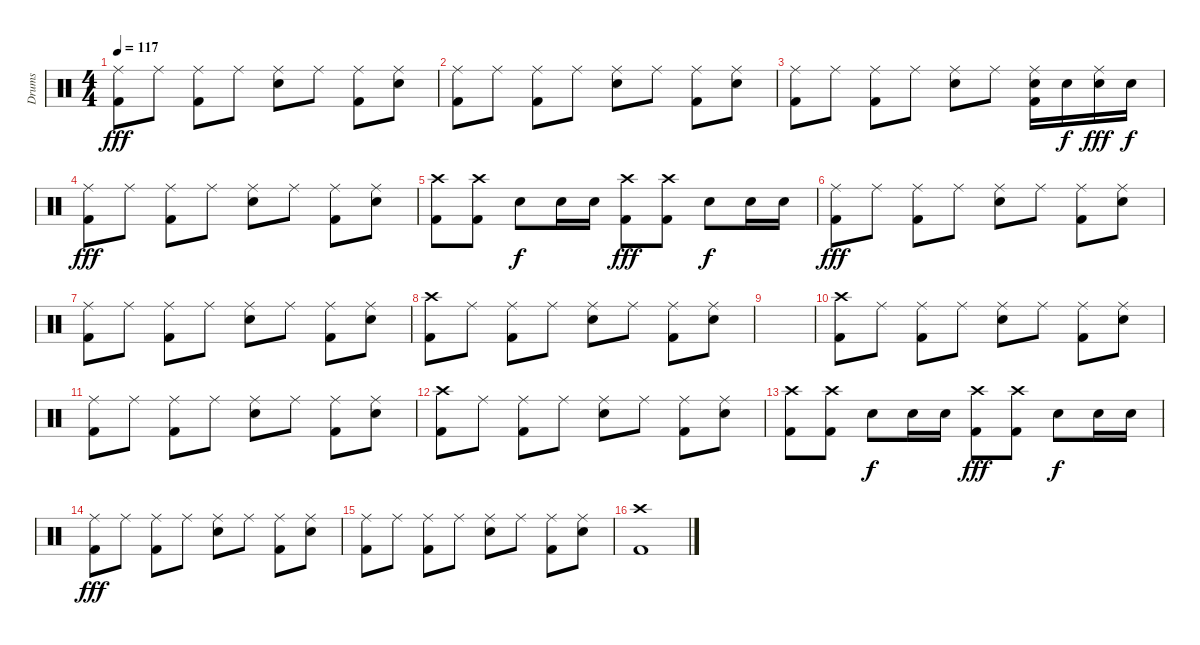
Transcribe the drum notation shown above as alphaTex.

\track ("Drums" "Drums") {instrument percussion}
\staff {score}
\articulation defaults
\ts (4 4)
\tempo 117
\clef neutral
\ks c
("Ride (middle)" "Kick (hit) 2").8{dy fff} "Ride (middle)".8 ("Ride (middle)" "Kick (hit) 2").8 "Ride (middle)".8 ("Ride (middle)" "Snare (hit) 2").8 "Ride (middle)".8 ("Ride (middle)" "Kick (hit) 2").8 ("Ride (middle)" "Snare (hit) 2").8 |
("Ride (middle)" "Kick (hit) 2").8 "Ride (middle)".8 ("Ride (middle)" "Kick (hit) 2").8 "Ride (middle)".8 ("Ride (middle)" "Snare (hit) 2").8 "Ride (middle)".8 ("Ride (middle)" "Kick (hit) 2").8 ("Ride (middle)" "Snare (hit) 2").8 |
("Ride (middle)" "Kick (hit) 2").8 "Ride (middle)".8 ("Ride (middle)" "Kick (hit) 2").8 "Ride (middle)".8 ("Ride (middle)" "Snare (hit) 2").8 "Ride (middle)".8 ("Ride (middle)" "Snare (hit) 2" "Kick (hit) 2").16 "Snare (hit) 2".16{dy f} ("Ride (middle)" "Snare (hit) 2").16{dy fff} "Snare (hit) 2".16{dy f} |
("Ride (middle)" "Kick (hit) 2").8{dy fff} "Ride (middle)".8 ("Ride (middle)" "Kick (hit) 2").8 "Ride (middle)".8 ("Ride (middle)" "Snare (hit) 2").8 "Ride (middle)".8 ("Ride (middle)" "Kick (hit) 2").8 ("Ride (middle)" "Snare (hit) 2").8 |
("Crash high (hit)" "Kick (hit) 2").8 ("Crash high (hit)" "Kick (hit) 2").8 "Snare (hit) 2".8{dy f} "Snare (hit) 2".16 "Snare (hit) 2".16 ("Crash high (hit)" "Kick (hit) 2").8{dy fff} ("Crash high (hit)" "Kick (hit) 2").8 "Snare (hit) 2".8{dy f} "Snare (hit) 2".16 "Snare (hit) 2".16 |
("Ride (middle)" "Kick (hit) 2").8{dy fff} "Ride (middle)".8 ("Ride (middle)" "Kick (hit) 2").8 "Ride (middle)".8 ("Ride (middle)" "Snare (hit) 2").8 "Ride (middle)".8 ("Ride (middle)" "Kick (hit) 2").8 ("Ride (middle)" "Snare (hit) 2").8 |
("Ride (middle)" "Kick (hit) 2").8 "Ride (middle)".8 ("Ride (middle)" "Kick (hit) 2").8 "Ride (middle)".8 ("Ride (middle)" "Snare (hit) 2").8 "Ride (middle)".8 ("Ride (middle)" "Kick (hit) 2").8 ("Ride (middle)" "Snare (hit) 2").8 |
("Crash high (hit)" "Kick (hit) 2").8 "Ride (middle)".8 ("Ride (middle)" "Kick (hit) 2").8 "Ride (middle)".8 ("Ride (middle)" "Snare (hit) 2").8 "Ride (middle)".8 ("Ride (middle)" "Kick (hit) 2").8 ("Ride (middle)" "Snare (hit) 2").8 |
|
("Crash high (hit)" "Kick (hit) 2").8 "Ride (middle)".8 ("Ride (middle)" "Kick (hit) 2").8 "Ride (middle)".8 ("Ride (middle)" "Snare (hit) 2").8 "Ride (middle)".8 ("Ride (middle)" "Kick (hit) 2").8 ("Ride (middle)" "Snare (hit) 2").8 |
("Ride (middle)" "Kick (hit) 2").8 "Ride (middle)".8 ("Ride (middle)" "Kick (hit) 2").8 "Ride (middle)".8 ("Ride (middle)" "Snare (hit) 2").8 "Ride (middle)".8 ("Ride (middle)" "Kick (hit) 2").8 ("Ride (middle)" "Snare (hit) 2").8 |
("Crash high (hit)" "Kick (hit) 2").8 "Ride (middle)".8 ("Ride (middle)" "Kick (hit) 2").8 "Ride (middle)".8 ("Ride (middle)" "Snare (hit) 2").8 "Ride (middle)".8 ("Ride (middle)" "Kick (hit) 2").8 ("Ride (middle)" "Snare (hit) 2").8 |
("Crash high (hit)" "Kick (hit) 2").8 ("Crash high (hit)" "Kick (hit) 2").8 "Snare (hit) 2".8{dy f} "Snare (hit) 2".16 "Snare (hit) 2".16 ("Crash high (hit)" "Kick (hit) 2").8{dy fff} ("Crash high (hit)" "Kick (hit) 2").8 "Snare (hit) 2".8{dy f} "Snare (hit) 2".16 "Snare (hit) 2".16 |
("Ride (middle)" "Kick (hit) 2").8{dy fff} "Ride (middle)".8 ("Ride (middle)" "Kick (hit) 2").8 "Ride (middle)".8 ("Ride (middle)" "Snare (hit) 2").8 "Ride (middle)".8 ("Ride (middle)" "Kick (hit) 2").8 ("Ride (middle)" "Snare (hit) 2").8 |
("Ride (middle)" "Kick (hit) 2").8 "Ride (middle)".8 ("Ride (middle)" "Kick (hit) 2").8 "Ride (middle)".8 ("Ride (middle)" "Snare (hit) 2").8 "Ride (middle)".8 ("Ride (middle)" "Kick (hit) 2").8 ("Ride (middle)" "Snare (hit) 2").8 |
("Crash high (hit)" "Kick (hit) 2").1
